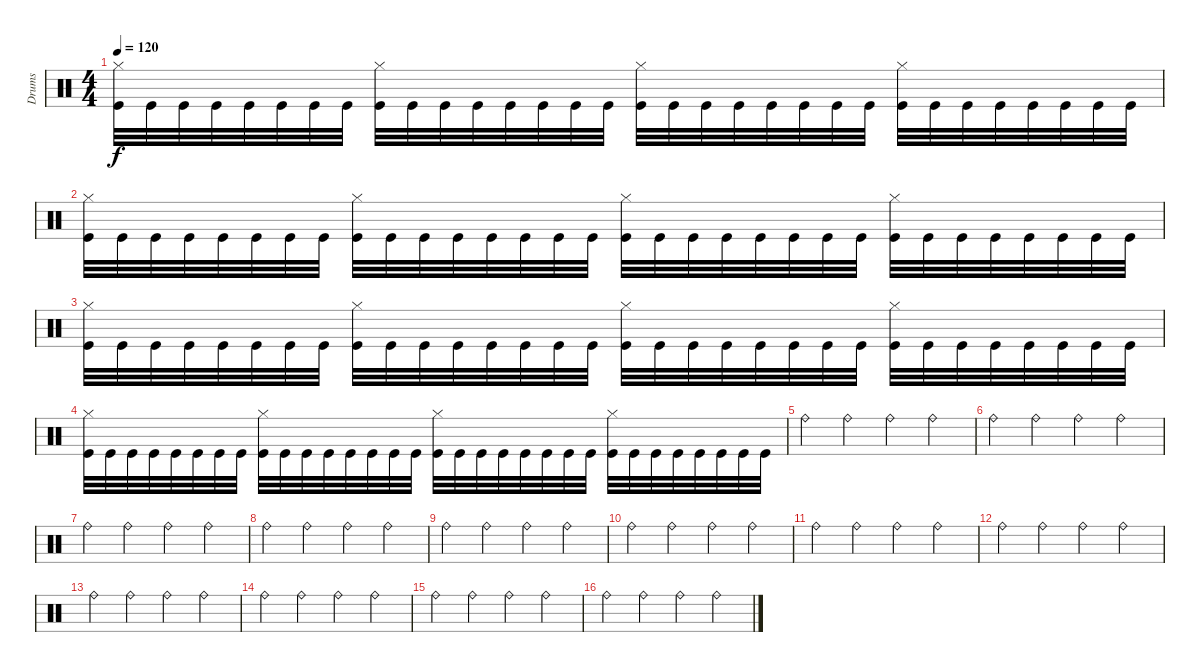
\track ("Drums" "Drums") {instrument percussion}
\staff {score}
\articulation defaults
\ts (4 4)
\tempo 120
\clef neutral
\ks c
("Hi-Hat (closed)" "Kick (hit)").32{dy f} "Kick (hit)".32 "Kick (hit)".32 "Kick (hit)".32 "Kick (hit)".32 "Kick (hit)".32 "Kick (hit)".32 "Kick (hit)".32 ("Hi-Hat (closed)" "Kick (hit)").32 "Kick (hit)".32 "Kick (hit)".32 "Kick (hit)".32 "Kick (hit)".32 "Kick (hit)".32 "Kick (hit)".32 "Kick (hit)".32 ("Hi-Hat (closed)" "Kick (hit)").32 "Kick (hit)".32 "Kick (hit)".32 "Kick (hit)".32 "Kick (hit)".32 "Kick (hit)".32 "Kick (hit)".32 "Kick (hit)".32 ("Hi-Hat (closed)" "Kick (hit)").32 "Kick (hit)".32 "Kick (hit)".32 "Kick (hit)".32 "Kick (hit)".32 "Kick (hit)".32 "Kick (hit)".32 "Kick (hit)".32 |
("Hi-Hat (closed)" "Kick (hit)").32 "Kick (hit)".32 "Kick (hit)".32 "Kick (hit)".32 "Kick (hit)".32 "Kick (hit)".32 "Kick (hit)".32 "Kick (hit)".32 ("Hi-Hat (closed)" "Kick (hit)").32 "Kick (hit)".32 "Kick (hit)".32 "Kick (hit)".32 "Kick (hit)".32 "Kick (hit)".32 "Kick (hit)".32 "Kick (hit)".32 ("Hi-Hat (closed)" "Kick (hit)").32 "Kick (hit)".32 "Kick (hit)".32 "Kick (hit)".32 "Kick (hit)".32 "Kick (hit)".32 "Kick (hit)".32 "Kick (hit)".32 ("Hi-Hat (closed)" "Kick (hit)").32 "Kick (hit)".32 "Kick (hit)".32 "Kick (hit)".32 "Kick (hit)".32 "Kick (hit)".32 "Kick (hit)".32 "Kick (hit)".32 |
("Hi-Hat (closed)" "Kick (hit)").32 "Kick (hit)".32 "Kick (hit)".32 "Kick (hit)".32 "Kick (hit)".32 "Kick (hit)".32 "Kick (hit)".32 "Kick (hit)".32 ("Hi-Hat (closed)" "Kick (hit)").32 "Kick (hit)".32 "Kick (hit)".32 "Kick (hit)".32 "Kick (hit)".32 "Kick (hit)".32 "Kick (hit)".32 "Kick (hit)".32 ("Hi-Hat (closed)" "Kick (hit)").32 "Kick (hit)".32 "Kick (hit)".32 "Kick (hit)".32 "Kick (hit)".32 "Kick (hit)".32 "Kick (hit)".32 "Kick (hit)".32 ("Hi-Hat (closed)" "Kick (hit)").32 "Kick (hit)".32 "Kick (hit)".32 "Kick (hit)".32 "Kick (hit)".32 "Kick (hit)".32 "Kick (hit)".32 "Kick (hit)".32 |
("Hi-Hat (closed)" "Kick (hit)").32 "Kick (hit)".32 "Kick (hit)".32 "Kick (hit)".32 "Kick (hit)".32 "Kick (hit)".32 "Kick (hit)".32 "Kick (hit)".32 ("Hi-Hat (closed)" "Kick (hit)").32 "Kick (hit)".32 "Kick (hit)".32 "Kick (hit)".32 "Kick (hit)".32 "Kick (hit)".32 "Kick (hit)".32 "Kick (hit)".32 ("Hi-Hat (closed)" "Kick (hit)").32 "Kick (hit)".32 "Kick (hit)".32 "Kick (hit)".32 "Kick (hit)".32 "Kick (hit)".32 "Kick (hit)".32 "Kick (hit)".32 ("Hi-Hat (closed)" "Kick (hit)").32 "Kick (hit)".32 "Kick (hit)".32 "Kick (hit)".32 "Kick (hit)".32 "Kick (hit)".32 "Kick (hit)".32 "Kick (hit)".32 |
"Ride (bell)".4 "Ride (bell)".4 "Ride (bell)".4 "Ride (bell)".4 |
"Ride (bell)".4 "Ride (bell)".4 "Ride (bell)".4 "Ride (bell)".4 |
"Ride (bell)".4 "Ride (bell)".4 "Ride (bell)".4 "Ride (bell)".4 |
"Ride (bell)".4 "Ride (bell)".4 "Ride (bell)".4 "Ride (bell)".4 |
"Ride (bell)".4 "Ride (bell)".4 "Ride (bell)".4 "Ride (bell)".4 |
"Ride (bell)".4 "Ride (bell)".4 "Ride (bell)".4 "Ride (bell)".4 |
"Ride (bell)".4 "Ride (bell)".4 "Ride (bell)".4 "Ride (bell)".4 |
"Ride (bell)".4 "Ride (bell)".4 "Ride (bell)".4 "Ride (bell)".4 |
"Ride (bell)".4 "Ride (bell)".4 "Ride (bell)".4 "Ride (bell)".4 |
"Ride (bell)".4 "Ride (bell)".4 "Ride (bell)".4 "Ride (bell)".4 |
"Ride (bell)".4 "Ride (bell)".4 "Ride (bell)".4 "Ride (bell)".4 |
"Ride (bell)".4 "Ride (bell)".4 "Ride (bell)".4 "Ride (bell)".4
